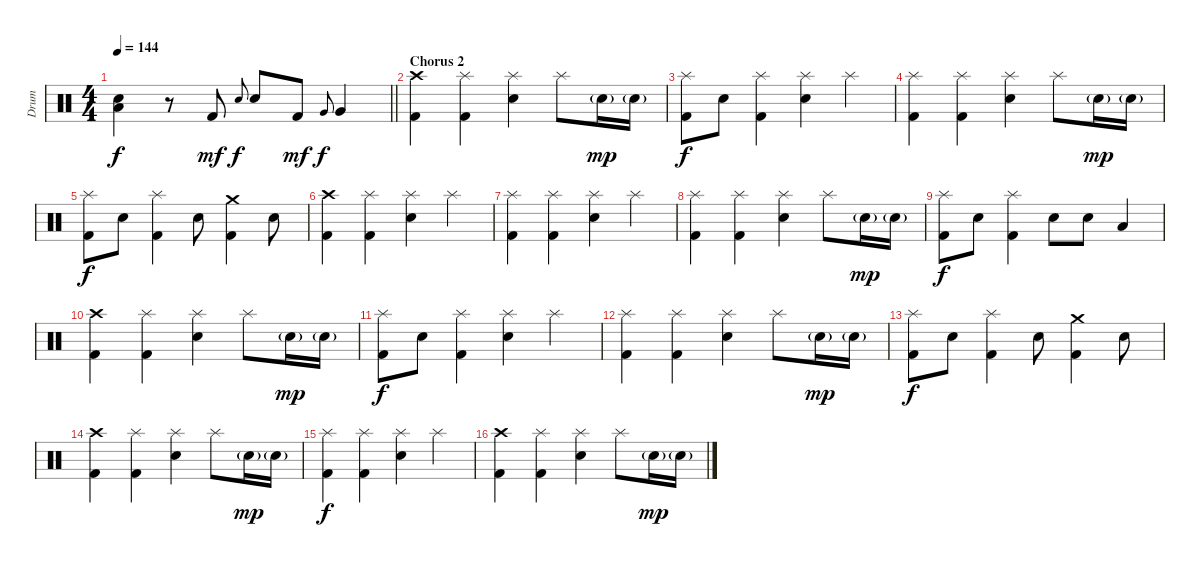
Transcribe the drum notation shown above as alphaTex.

\track ("Drum" "Drum") {instrument percussion}
\staff {score}
\articulation defaults
\ts (4 4)
\tempo 144
\clef neutral
\barLineRight lightlight
\ks c
("Electric Snare (hit)" "Low Floor Tom (hit)").4{dy f} r.8 "Kick (hit) 2".8{dy mf} "Electric Snare (hit)".8{gr onbeat dy f} "Electric Snare (hit)".8 "Kick (hit) 2".8{dy mf} "Very Low Tom (hit)".8{gr onbeat dy f} "Very Low Tom (hit)".4 |
\section ("" "Chorus 2")
("Crash high (hit)" "Kick (hit) 2").4 ("Splash (hit)" "Kick (hit) 2").4 ("Splash (hit)" "Electric Snare (hit)").4 "Splash (hit)".8 "Electric Snare (hit)"{g}.16{dy mp} "Electric Snare (hit)"{g}.16 |
("Splash (hit)" "Kick (hit) 2").8{dy f} "Electric Snare (hit)".8 ("Splash (hit)" "Kick (hit) 2").4 ("Splash (hit)" "Electric Snare (hit)").4 "Splash (hit)".4 |
("Splash (hit)" "Kick (hit) 2").4 ("Splash (hit)" "Kick (hit) 2").4 ("Splash (hit)" "Electric Snare (hit)").4 "Splash (hit)".8 "Electric Snare (hit)"{g}.16{dy mp} "Electric Snare (hit)"{g}.16 |
("Splash (hit)" "Kick (hit) 2").8{dy f} "Electric Snare (hit)".8 ("Splash (hit)" "Kick (hit) 2").4 "Electric Snare (hit)".8 ("Crash medium (hit)" "Kick (hit) 2").4 "Electric Snare (hit)".8 |
("Crash high (hit)" "Kick (hit) 2").4 ("Splash (hit)" "Kick (hit) 2").4 ("Splash (hit)" "Electric Snare (hit)").4 "Splash (hit)".4 |
("Splash (hit)" "Kick (hit) 2").4 ("Splash (hit)" "Kick (hit) 2").4 ("Splash (hit)" "Electric Snare (hit)").4 "Splash (hit)".4 |
("Splash (hit)" "Kick (hit) 2").4 ("Splash (hit)" "Kick (hit) 2").4 ("Splash (hit)" "Electric Snare (hit)").4 "Splash (hit)".8 "Electric Snare (hit)"{g}.16{dy mp} "Electric Snare (hit)"{g}.16 |
("Splash (hit)" "Kick (hit) 2").8{dy f} "Electric Snare (hit)".8 ("Splash (hit)" "Kick (hit) 2").4 "Electric Snare (hit)".8 "Electric Snare (hit)".8 "Low Tom (hit)".4 |
("Crash high (hit)" "Kick (hit) 2").4 ("Splash (hit)" "Kick (hit) 2").4 ("Splash (hit)" "Electric Snare (hit)").4 "Splash (hit)".8 "Electric Snare (hit)"{g}.16{dy mp} "Electric Snare (hit)"{g}.16 |
("Splash (hit)" "Kick (hit) 2").8{dy f} "Electric Snare (hit)".8 ("Splash (hit)" "Kick (hit) 2").4 ("Splash (hit)" "Electric Snare (hit)").4 "Splash (hit)".4 |
("Splash (hit)" "Kick (hit) 2").4 ("Splash (hit)" "Kick (hit) 2").4 ("Splash (hit)" "Electric Snare (hit)").4 "Splash (hit)".8 "Electric Snare (hit)"{g}.16{dy mp} "Electric Snare (hit)"{g}.16 |
("Splash (hit)" "Kick (hit) 2").8{dy f} "Electric Snare (hit)".8 ("Splash (hit)" "Kick (hit) 2").4 "Electric Snare (hit)".8 ("Crash medium (hit)" "Kick (hit) 2").4 "Electric Snare (hit)".8 |
("Crash high (hit)" "Kick (hit) 2").4 ("Splash (hit)" "Kick (hit) 2").4 ("Splash (hit)" "Electric Snare (hit)").4 "Splash (hit)".8 "Electric Snare (hit)"{g}.16{dy mp} "Electric Snare (hit)"{g}.16 |
("Splash (hit)" "Kick (hit) 2").4{dy f} ("Splash (hit)" "Kick (hit) 2").4 ("Splash (hit)" "Electric Snare (hit)").4 "Splash (hit)".4 |
("Crash high (hit)" "Kick (hit) 2").4 ("Splash (hit)" "Kick (hit) 2").4 ("Splash (hit)" "Electric Snare (hit)").4 "Splash (hit)".8 "Electric Snare (hit)"{g}.16{dy mp} "Electric Snare (hit)"{g}.16
